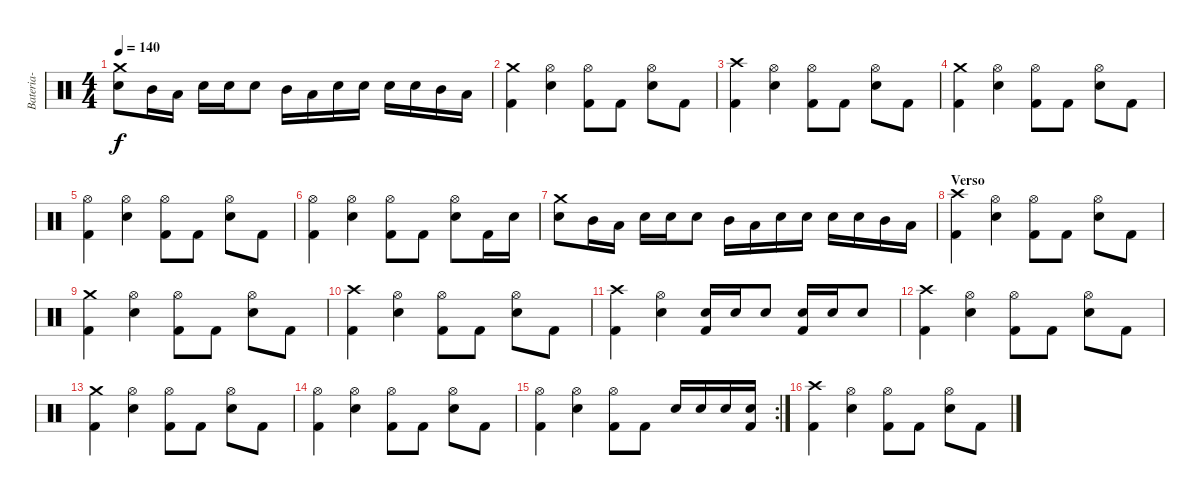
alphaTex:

\track ("Bateria-" "Bateria-") {instrument percussion}
\staff {score}
\articulation defaults
\ts (4 4)
\tempo 140
\clef neutral
\ks c
("Crash medium (hit)" "Electric Snare (hit)").8{dy f} "Mid Tom (hit)".16 "Low Tom (hit)".16 "Electric Snare (hit)".16 "Electric Snare (hit)".16 "Electric Snare (hit)".8 "Mid Tom (hit)".16 "Low Tom (hit)".16 "Electric Snare (hit)".16 "Electric Snare (hit)".16 "Electric Snare (hit)".16 "Electric Snare (hit)".16 "Mid Tom (hit)".16 "Low Tom (hit)".16 |
("Crash medium (hit)" "Kick (hit) 2").4 ("Hi-Hat (open)" "Electric Snare (hit)").4 ("Hi-Hat (open)" "Kick (hit) 2").8 "Kick (hit) 2".8 ("Hi-Hat (open)" "Electric Snare (hit)").8 "Kick (hit) 2".8 |
("Crash high (hit)" "Kick (hit) 2").4 ("Hi-Hat (open)" "Electric Snare (hit)").4 ("Hi-Hat (open)" "Kick (hit) 2").8 "Kick (hit) 2".8 ("Hi-Hat (open)" "Electric Snare (hit)").8 "Kick (hit) 2".8 |
("Crash medium (hit)" "Kick (hit) 2").4 ("Hi-Hat (open)" "Electric Snare (hit)").4 ("Hi-Hat (open)" "Kick (hit) 2").8 "Kick (hit) 2".8 ("Hi-Hat (open)" "Electric Snare (hit)").8 "Kick (hit) 2".8 |
("Hi-Hat (open)" "Kick (hit) 2").4 ("Hi-Hat (open)" "Electric Snare (hit)").4 ("Hi-Hat (open)" "Kick (hit) 2").8 "Kick (hit) 2".8 ("Hi-Hat (open)" "Electric Snare (hit)").8 "Kick (hit) 2".8 |
("Hi-Hat (open)" "Kick (hit) 2").4 ("Hi-Hat (open)" "Electric Snare (hit)").4 ("Hi-Hat (open)" "Kick (hit) 2").8 "Kick (hit) 2".8 ("Hi-Hat (open)" "Electric Snare (hit)").8 "Kick (hit) 2".16 "Electric Snare (hit)".16 |
("Crash medium (hit)" "Electric Snare (hit)").8 "Mid Tom (hit)".16 "Low Tom (hit)".16 "Electric Snare (hit)".16 "Electric Snare (hit)".16 "Electric Snare (hit)".8 "Mid Tom (hit)".16 "Low Tom (hit)".16 "Electric Snare (hit)".16 "Electric Snare (hit)".16 "Electric Snare (hit)".16 "Electric Snare (hit)".16 "Mid Tom (hit)".16 "Low Tom (hit)".16 |
\section ("" "Verso")
("Crash high (hit)" "Kick (hit) 2").4 ("Hi-Hat (open)" "Electric Snare (hit)").4 ("Hi-Hat (open)" "Kick (hit) 2").8 "Kick (hit) 2".8 ("Hi-Hat (open)" "Electric Snare (hit)").8 "Kick (hit) 2".8 |
("Crash medium (hit)" "Kick (hit) 2").4 ("Hi-Hat (open)" "Electric Snare (hit)").4 ("Hi-Hat (open)" "Kick (hit) 2").8 "Kick (hit) 2".8 ("Hi-Hat (open)" "Electric Snare (hit)").8 "Kick (hit) 2".8 |
("Crash high (hit)" "Kick (hit) 2").4 ("Hi-Hat (open)" "Electric Snare (hit)").4 ("Hi-Hat (open)" "Kick (hit) 2").8 "Kick (hit) 2".8 ("Hi-Hat (open)" "Electric Snare (hit)").8 "Kick (hit) 2".8 |
("Crash high (hit)" "Kick (hit) 2").4 ("Hi-Hat (open)" "Electric Snare (hit)").4 ("Electric Snare (hit)" "Kick (hit) 2").16 "Electric Snare (hit)".16 "Electric Snare (hit)".8 ("Electric Snare (hit)" "Kick (hit) 2").16 "Electric Snare (hit)".16 "Electric Snare (hit)".8 |
("Crash high (hit)" "Kick (hit) 2").4 ("Hi-Hat (open)" "Electric Snare (hit)").4 ("Hi-Hat (open)" "Kick (hit) 2").8 "Kick (hit) 2".8 ("Hi-Hat (open)" "Electric Snare (hit)").8 "Kick (hit) 2".8 |
("Crash medium (hit)" "Kick (hit) 2").4 ("Hi-Hat (open)" "Electric Snare (hit)").4 ("Hi-Hat (open)" "Kick (hit) 2").8 "Kick (hit) 2".8 ("Hi-Hat (open)" "Electric Snare (hit)").8 "Kick (hit) 2".8 |
("Hi-Hat (open)" "Kick (hit) 2").4 ("Hi-Hat (open)" "Electric Snare (hit)").4 ("Hi-Hat (open)" "Kick (hit) 2").8 "Kick (hit) 2".8 ("Hi-Hat (open)" "Electric Snare (hit)").8 "Kick (hit) 2".8 |
\rc 2
("Hi-Hat (open)" "Kick (hit) 2").4 ("Hi-Hat (open)" "Electric Snare (hit)").4 ("Hi-Hat (open)" "Kick (hit) 2").8 "Kick (hit) 2".8 "Electric Snare (hit)".16 "Electric Snare (hit)".16 "Electric Snare (hit)".16 ("Electric Snare (hit)" "Kick (hit) 2").16 |
("Crash high (hit)" "Kick (hit) 2").4 ("Hi-Hat (open)" "Electric Snare (hit)").4 ("Hi-Hat (open)" "Kick (hit) 2").8 "Kick (hit) 2".8 ("Hi-Hat (open)" "Electric Snare (hit)").8 "Kick (hit) 2".8
